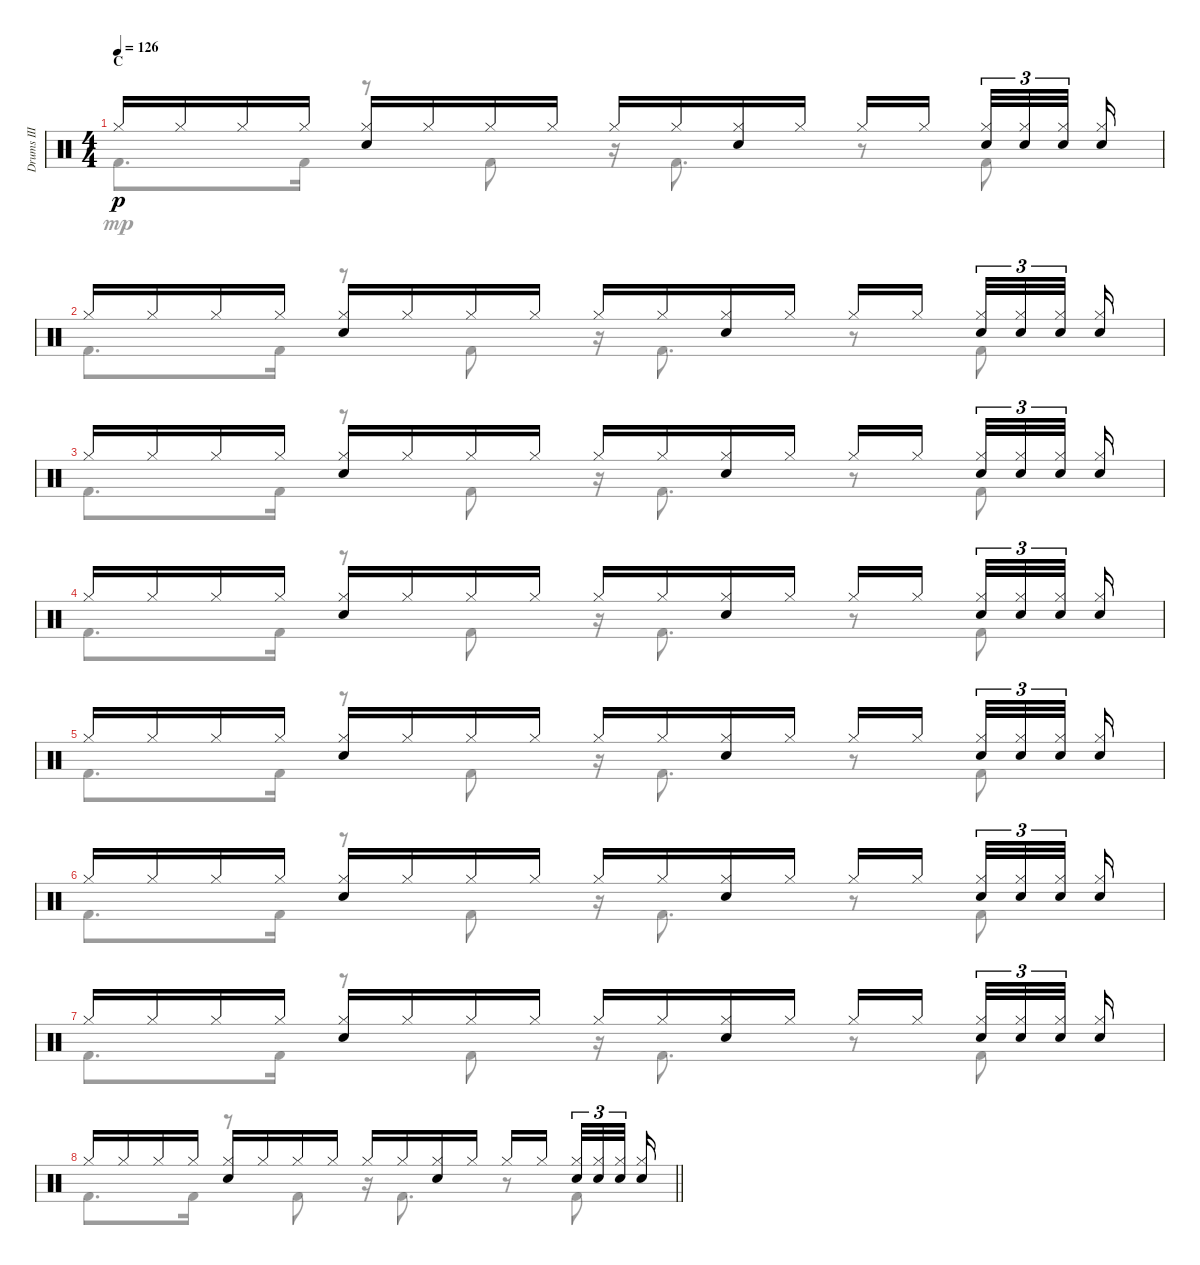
\track ("Drums III" "Drums III") {instrument percussion}
\staff {score}
\articulation defaults
\voice
\ts (4 4)
\section ("" "C")
\tempo 126
\clef neutral
\ks c "Hi-Hat (closed)".16{dy p} "Hi-Hat (closed)".16 "Hi-Hat (closed)".16 "Hi-Hat (closed)".16
("Hi-Hat (closed)" "Electric Snare (hit)").16 "Hi-Hat (closed)".16 "Hi-Hat (closed)".16 "Hi-Hat (closed)".16 "Hi-Hat (closed)".16 "Hi-Hat (closed)".16 ("Hi-Hat (closed)" "Electric Snare (hit)").16 "Hi-Hat (closed)".16 "Hi-Hat (closed)".16 "Hi-Hat (closed)".16{beam splitsecondary} ("Hi-Hat (closed)" "Electric Snare (hit)").32{tu (3 2)} ("Hi-Hat (closed)" "Electric Snare (hit)").32{tu (3 2)} ("Hi-Hat (closed)" "Electric Snare (hit)").32{tu (3 2) beam splitsecondary} ("Hi-Hat (closed)" "Electric Snare (hit)").16 |
"Hi-Hat (closed)".16 "Hi-Hat (closed)".16 "Hi-Hat (closed)".16 "Hi-Hat (closed)".16 ("Hi-Hat (closed)" "Electric Snare (hit)").16 "Hi-Hat (closed)".16 "Hi-Hat (closed)".16 "Hi-Hat (closed)".16 "Hi-Hat (closed)".16 "Hi-Hat (closed)".16 ("Hi-Hat (closed)" "Electric Snare (hit)").16 "Hi-Hat (closed)".16 "Hi-Hat (closed)".16 "Hi-Hat (closed)".16{beam splitsecondary} ("Hi-Hat (closed)" "Electric Snare (hit)").32{tu (3 2)} ("Hi-Hat (closed)" "Electric Snare (hit)").32{tu (3 2)} ("Hi-Hat (closed)" "Electric Snare (hit)").32{tu (3 2) beam splitsecondary} ("Hi-Hat (closed)" "Electric Snare (hit)").16 |
"Hi-Hat (closed)".16 "Hi-Hat (closed)".16 "Hi-Hat (closed)".16 "Hi-Hat (closed)".16 ("Hi-Hat (closed)" "Electric Snare (hit)").16 "Hi-Hat (closed)".16 "Hi-Hat (closed)".16 "Hi-Hat (closed)".16 "Hi-Hat (closed)".16 "Hi-Hat (closed)".16 ("Hi-Hat (closed)" "Electric Snare (hit)").16 "Hi-Hat (closed)".16 "Hi-Hat (closed)".16 "Hi-Hat (closed)".16{beam splitsecondary} ("Hi-Hat (closed)" "Electric Snare (hit)").32{tu (3 2)} ("Hi-Hat (closed)" "Electric Snare (hit)").32{tu (3 2)} ("Hi-Hat (closed)" "Electric Snare (hit)").32{tu (3 2) beam splitsecondary} ("Hi-Hat (closed)" "Electric Snare (hit)").16 |
"Hi-Hat (closed)".16 "Hi-Hat (closed)".16 "Hi-Hat (closed)".16 "Hi-Hat (closed)".16 ("Hi-Hat (closed)" "Electric Snare (hit)").16 "Hi-Hat (closed)".16 "Hi-Hat (closed)".16 "Hi-Hat (closed)".16 "Hi-Hat (closed)".16 "Hi-Hat (closed)".16 ("Hi-Hat (closed)" "Electric Snare (hit)").16 "Hi-Hat (closed)".16 "Hi-Hat (closed)".16 "Hi-Hat (closed)".16{beam splitsecondary} ("Hi-Hat (closed)" "Electric Snare (hit)").32{tu (3 2)} ("Hi-Hat (closed)" "Electric Snare (hit)").32{tu (3 2)} ("Hi-Hat (closed)" "Electric Snare (hit)").32{tu (3 2) beam splitsecondary} ("Hi-Hat (closed)" "Electric Snare (hit)").16 |
"Hi-Hat (closed)".16 "Hi-Hat (closed)".16 "Hi-Hat (closed)".16 "Hi-Hat (closed)".16 ("Hi-Hat (closed)" "Electric Snare (hit)").16 "Hi-Hat (closed)".16 "Hi-Hat (closed)".16 "Hi-Hat (closed)".16 "Hi-Hat (closed)".16 "Hi-Hat (closed)".16 ("Hi-Hat (closed)" "Electric Snare (hit)").16 "Hi-Hat (closed)".16 "Hi-Hat (closed)".16 "Hi-Hat (closed)".16{beam splitsecondary} ("Hi-Hat (closed)" "Electric Snare (hit)").32{tu (3 2)} ("Hi-Hat (closed)" "Electric Snare (hit)").32{tu (3 2)} ("Hi-Hat (closed)" "Electric Snare (hit)").32{tu (3 2) beam splitsecondary} ("Hi-Hat (closed)" "Electric Snare (hit)").16 |
"Hi-Hat (closed)".16 "Hi-Hat (closed)".16 "Hi-Hat (closed)".16 "Hi-Hat (closed)".16 ("Hi-Hat (closed)" "Electric Snare (hit)").16 "Hi-Hat (closed)".16 "Hi-Hat (closed)".16 "Hi-Hat (closed)".16 "Hi-Hat (closed)".16 "Hi-Hat (closed)".16 ("Hi-Hat (closed)" "Electric Snare (hit)").16 "Hi-Hat (closed)".16 "Hi-Hat (closed)".16 "Hi-Hat (closed)".16{beam splitsecondary} ("Hi-Hat (closed)" "Electric Snare (hit)").32{tu (3 2)} ("Hi-Hat (closed)" "Electric Snare (hit)").32{tu (3 2)} ("Hi-Hat (closed)" "Electric Snare (hit)").32{tu (3 2) beam splitsecondary} ("Hi-Hat (closed)" "Electric Snare (hit)").16 |
"Hi-Hat (closed)".16 "Hi-Hat (closed)".16 "Hi-Hat (closed)".16 "Hi-Hat (closed)".16 ("Hi-Hat (closed)" "Electric Snare (hit)").16 "Hi-Hat (closed)".16 "Hi-Hat (closed)".16 "Hi-Hat (closed)".16 "Hi-Hat (closed)".16 "Hi-Hat (closed)".16 ("Hi-Hat (closed)" "Electric Snare (hit)").16 "Hi-Hat (closed)".16 "Hi-Hat (closed)".16 "Hi-Hat (closed)".16{beam splitsecondary} ("Hi-Hat (closed)" "Electric Snare (hit)").32{tu (3 2)} ("Hi-Hat (closed)" "Electric Snare (hit)").32{tu (3 2)} ("Hi-Hat (closed)" "Electric Snare (hit)").32{tu (3 2) beam splitsecondary} ("Hi-Hat (closed)" "Electric Snare (hit)").16 |
\barLineRight lightlight "Hi-Hat (closed)".16 "Hi-Hat (closed)".16 "Hi-Hat (closed)".16 "Hi-Hat (closed)".16
("Hi-Hat (closed)" "Electric Snare (hit)").16 "Hi-Hat (closed)".16 "Hi-Hat (closed)".16 "Hi-Hat (closed)".16 "Hi-Hat (closed)".16 "Hi-Hat (closed)".16 ("Hi-Hat (closed)" "Electric Snare (hit)").16 "Hi-Hat (closed)".16 "Hi-Hat (closed)".16 "Hi-Hat (closed)".16{beam splitsecondary} ("Hi-Hat (closed)" "Electric Snare (hit)").32{tu (3 2)} ("Hi-Hat (closed)" "Electric Snare (hit)").32{tu (3 2)} ("Hi-Hat (closed)" "Electric Snare (hit)").32{tu (3 2) beam splitsecondary} ("Hi-Hat (closed)" "Electric Snare (hit)").16
\voice
\clef neutral
\ottava regular
\simile none
\ks c "Kick (hit) 2".8{d dy mp} "Kick (hit) 2".16
r.8 "Kick (hit) 2".8 r.16 "Kick (hit) 2".8{d} r.8 "Kick (hit) 2".8 |
"Kick (hit) 2".8{d} "Kick (hit) 2".16 r.8 "Kick (hit) 2".8 r.16 "Kick (hit) 2".8{d} r.8 "Kick (hit) 2".8 |
"Kick (hit) 2".8{d} "Kick (hit) 2".16 r.8 "Kick (hit) 2".8 r.16 "Kick (hit) 2".8{d} r.8 "Kick (hit) 2".8 |
"Kick (hit) 2".8{d} "Kick (hit) 2".16 r.8 "Kick (hit) 2".8 r.16 "Kick (hit) 2".8{d} r.8 "Kick (hit) 2".8 |
"Kick (hit) 2".8{d} "Kick (hit) 2".16 r.8 "Kick (hit) 2".8 r.16 "Kick (hit) 2".8{d} r.8 "Kick (hit) 2".8 |
"Kick (hit) 2".8{d} "Kick (hit) 2".16 r.8 "Kick (hit) 2".8 r.16 "Kick (hit) 2".8{d} r.8 "Kick (hit) 2".8 |
"Kick (hit) 2".8{d} "Kick (hit) 2".16 r.8 "Kick (hit) 2".8 r.16 "Kick (hit) 2".8{d} r.8 "Kick (hit) 2".8 |
\barLineRight lightlight "Kick (hit) 2".8{d} "Kick (hit) 2".16
r.8 "Kick (hit) 2".8 r.16 "Kick (hit) 2".8{d} r.8 "Kick (hit) 2".8
